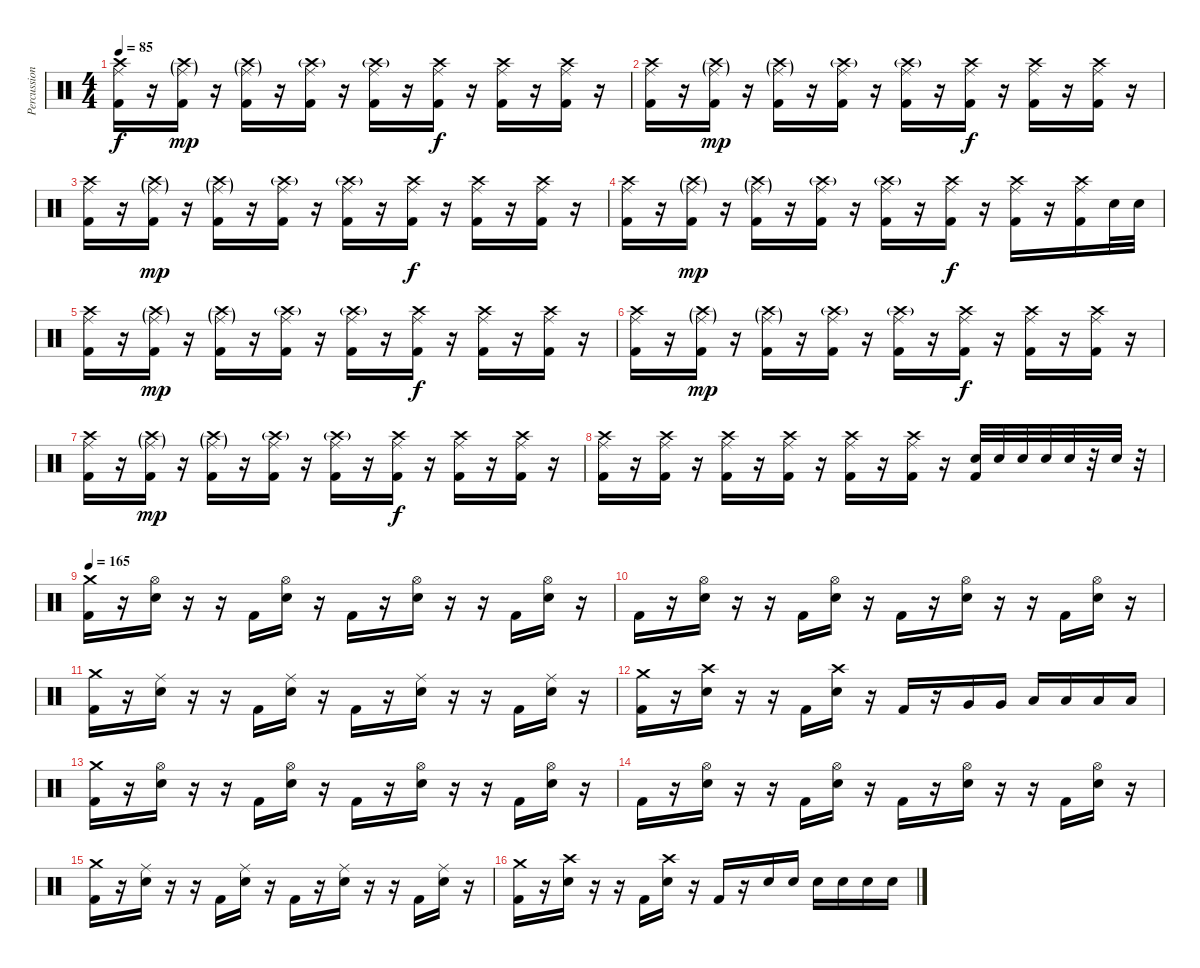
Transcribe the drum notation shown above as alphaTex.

\track ("Percussion" "Percussion") {instrument percussion}
\staff {score}
\articulation defaults
\ts (4 4)
\tempo 85
\clef neutral
\ks c
("Crash high (hit)" "Ride (middle)" "Kick (hit) 2").16{dy f} r.16 ("Crash high (hit)"{g} "Ride (middle)"{g} "Kick (hit) 2").16{dy mp} r.16 ("Crash high (hit)"{g} "Ride (middle)"{g} "Kick (hit) 2").16 r.16 ("Crash high (hit)"{g} "Ride (middle)" "Kick (hit) 2").16 r.16 ("Crash high (hit)"{g} "Ride (middle)" "Kick (hit) 2").16 r.16 ("Crash high (hit)" "Ride (middle)" "Kick (hit) 2").16{dy f} r.16 ("Crash high (hit)" "Ride (middle)" "Kick (hit) 2").16 r.16 ("Crash high (hit)" "Ride (middle)" "Kick (hit) 2").16 r.16 |
("Crash high (hit)" "Ride (middle)" "Kick (hit) 2").16 r.16 ("Crash high (hit)"{g} "Ride (middle)"{g} "Kick (hit) 2").16{dy mp} r.16 ("Crash high (hit)"{g} "Ride (middle)"{g} "Kick (hit) 2").16 r.16 ("Crash high (hit)"{g} "Ride (middle)" "Kick (hit) 2").16 r.16 ("Crash high (hit)"{g} "Ride (middle)" "Kick (hit) 2").16 r.16 ("Crash high (hit)" "Ride (middle)" "Kick (hit) 2").16{dy f} r.16 ("Crash high (hit)" "Ride (middle)" "Kick (hit) 2").16 r.16 ("Crash high (hit)" "Ride (middle)" "Kick (hit) 2").16 r.16 |
("Crash high (hit)" "Ride (middle)" "Kick (hit) 2").16 r.16 ("Crash high (hit)"{g} "Ride (middle)"{g} "Kick (hit) 2").16{dy mp} r.16 ("Crash high (hit)"{g} "Ride (middle)"{g} "Kick (hit) 2").16 r.16 ("Crash high (hit)"{g} "Ride (middle)" "Kick (hit) 2").16 r.16 ("Crash high (hit)"{g} "Ride (middle)" "Kick (hit) 2").16 r.16 ("Crash high (hit)" "Ride (middle)" "Kick (hit) 2").16{dy f} r.16 ("Crash high (hit)" "Ride (middle)" "Kick (hit) 2").16 r.16 ("Crash high (hit)" "Ride (middle)" "Kick (hit) 2").16 r.16 |
("Crash high (hit)" "Ride (middle)" "Kick (hit) 2").16 r.16 ("Crash high (hit)"{g} "Ride (middle)"{g} "Kick (hit) 2").16{dy mp} r.16 ("Crash high (hit)"{g} "Ride (middle)"{g} "Kick (hit) 2").16 r.16 ("Crash high (hit)"{g} "Ride (middle)" "Kick (hit) 2").16 r.16 ("Crash high (hit)"{g} "Ride (middle)" "Kick (hit) 2").16 r.16 ("Crash high (hit)" "Ride (middle)" "Kick (hit) 2").16{dy f} r.16 ("Crash high (hit)" "Ride (middle)" "Kick (hit) 2").16 r.16 ("Crash high (hit)" "Ride (middle)" "Kick (hit) 2").16 "Electric Snare (hit)".32 "Electric Snare (hit)".32 |
("Crash high (hit)" "Ride (middle)" "Kick (hit) 2").16 r.16 ("Crash high (hit)"{g} "Ride (middle)"{g} "Kick (hit) 2").16{dy mp} r.16 ("Crash high (hit)"{g} "Ride (middle)"{g} "Kick (hit) 2").16 r.16 ("Crash high (hit)"{g} "Ride (middle)" "Kick (hit) 2").16 r.16 ("Crash high (hit)"{g} "Ride (middle)" "Kick (hit) 2").16 r.16 ("Crash high (hit)" "Ride (middle)" "Kick (hit) 2").16{dy f} r.16 ("Crash high (hit)" "Ride (middle)" "Kick (hit) 2").16 r.16 ("Crash high (hit)" "Ride (middle)" "Kick (hit) 2").16 r.16 |
("Crash high (hit)" "Ride (middle)" "Kick (hit) 2").16 r.16 ("Crash high (hit)"{g} "Ride (middle)"{g} "Kick (hit) 2").16{dy mp} r.16 ("Crash high (hit)"{g} "Ride (middle)"{g} "Kick (hit) 2").16 r.16 ("Crash high (hit)"{g} "Ride (middle)" "Kick (hit) 2").16 r.16 ("Crash high (hit)"{g} "Ride (middle)" "Kick (hit) 2").16 r.16 ("Crash high (hit)" "Ride (middle)" "Kick (hit) 2").16{dy f} r.16 ("Crash high (hit)" "Ride (middle)" "Kick (hit) 2").16 r.16 ("Crash high (hit)" "Ride (middle)" "Kick (hit) 2").16 r.16 |
("Crash high (hit)" "Ride (middle)" "Kick (hit) 2").16 r.16 ("Crash high (hit)"{g} "Ride (middle)"{g} "Kick (hit) 2").16{dy mp} r.16 ("Crash high (hit)"{g} "Ride (middle)"{g} "Kick (hit) 2").16 r.16 ("Crash high (hit)"{g} "Ride (middle)" "Kick (hit) 2").16 r.16 ("Crash high (hit)"{g} "Ride (middle)" "Kick (hit) 2").16 r.16 ("Crash high (hit)" "Ride (middle)" "Kick (hit) 2").16{dy f} r.16 ("Crash high (hit)" "Ride (middle)" "Kick (hit) 2").16 r.16 ("Crash high (hit)" "Ride (middle)" "Kick (hit) 2").16 r.16 |
("Crash high (hit)" "Ride (middle)" "Kick (hit) 2").16 r.16 ("Crash high (hit)" "Ride (middle)" "Kick (hit) 2").16 r.16 ("Crash high (hit)" "Ride (middle)" "Kick (hit) 2").16 r.16 ("Crash high (hit)" "Ride (middle)" "Kick (hit) 2").16 r.16 ("Crash high (hit)" "Ride (middle)" "Kick (hit) 2").16 r.16 ("Crash high (hit)" "Ride (middle)" "Kick (hit) 2").16 r.16 ("Electric Snare (hit)" "Kick (hit) 2").32 "Electric Snare (hit)".32 "Electric Snare (hit)".32 "Electric Snare (hit)".32 "Electric Snare (hit)".32 r.32 "Electric Snare (hit)".32 r.32 |
\tempo 165
("Crash medium (hit)" "Kick (hit) 2").16 r.16 ("Hi-Hat (open)" "Electric Snare (hit)").16 r.16 r.16 "Kick (hit) 2".16 ("Hi-Hat (open)" "Electric Snare (hit)").16 r.16 "Kick (hit) 2".16 r.16 ("Hi-Hat (open)" "Electric Snare (hit)").16 r.16 r.16 "Kick (hit) 2".16 ("Hi-Hat (open)" "Electric Snare (hit)").16 r.16 |
"Kick (hit) 2".16 r.16 ("Hi-Hat (open)" "Electric Snare (hit)").16 r.16 r.16 "Kick (hit) 2".16 ("Hi-Hat (open)" "Electric Snare (hit)").16 r.16 "Kick (hit) 2".16 r.16 ("Hi-Hat (open)" "Electric Snare (hit)").16 r.16 r.16 "Kick (hit) 2".16 ("Hi-Hat (open)" "Electric Snare (hit)").16 r.16 |
("Crash medium (hit)" "Kick (hit) 2").16 r.16 ("Ride (middle)" "Electric Snare (hit)").16 r.16 r.16 "Kick (hit) 2".16 ("Ride (middle)" "Electric Snare (hit)").16 r.16 "Kick (hit) 2".16 r.16 ("Ride (middle)" "Electric Snare (hit)").16 r.16 r.16 "Kick (hit) 2".16 ("Ride (middle)" "Electric Snare (hit)").16 r.16 |
("Crash medium (hit)" "Kick (hit) 2").16 r.16 ("Crash high (hit)" "Electric Snare (hit)").16 r.16 r.16 "Kick (hit) 2".16 ("Crash high (hit)" "Electric Snare (hit)").16 r.16 "Kick (hit) 2".16 r.16 "Very Low Tom (hit)".16 "Very Low Tom (hit)".16 "Low Floor Tom (hit)".16 "Low Floor Tom (hit)".16 "Low Floor Tom (hit)".16 "Low Floor Tom (hit)".16 |
("Crash medium (hit)" "Kick (hit) 2").16 r.16 ("Hi-Hat (open)" "Electric Snare (hit)").16 r.16 r.16 "Kick (hit) 2".16 ("Hi-Hat (open)" "Electric Snare (hit)").16 r.16 "Kick (hit) 2".16 r.16 ("Hi-Hat (open)" "Electric Snare (hit)").16 r.16 r.16 "Kick (hit) 2".16 ("Hi-Hat (open)" "Electric Snare (hit)").16 r.16 |
"Kick (hit) 2".16 r.16 ("Hi-Hat (open)" "Electric Snare (hit)").16 r.16 r.16 "Kick (hit) 2".16 ("Hi-Hat (open)" "Electric Snare (hit)").16 r.16 "Kick (hit) 2".16 r.16 ("Hi-Hat (open)" "Electric Snare (hit)").16 r.16 r.16 "Kick (hit) 2".16 ("Hi-Hat (open)" "Electric Snare (hit)").16 r.16 |
("Crash medium (hit)" "Kick (hit) 2").16 r.16 ("Ride (middle)" "Electric Snare (hit)").16 r.16 r.16 "Kick (hit) 2".16 ("Ride (middle)" "Electric Snare (hit)").16 r.16 "Kick (hit) 2".16 r.16 ("Ride (middle)" "Electric Snare (hit)").16 r.16 r.16 "Kick (hit) 2".16 ("Ride (middle)" "Electric Snare (hit)").16 r.16 |
("Crash medium (hit)" "Kick (hit) 2").16 r.16 ("Crash high (hit)" "Electric Snare (hit)").16 r.16 r.16 "Kick (hit) 2".16 ("Crash high (hit)" "Electric Snare (hit)").16 r.16 "Kick (hit) 2".16 r.16 "Electric Snare (hit)".16 "Electric Snare (hit)".16 "Electric Snare (hit)".16 "Electric Snare (hit)".16 "Electric Snare (hit)".16 "Electric Snare (hit)".16
